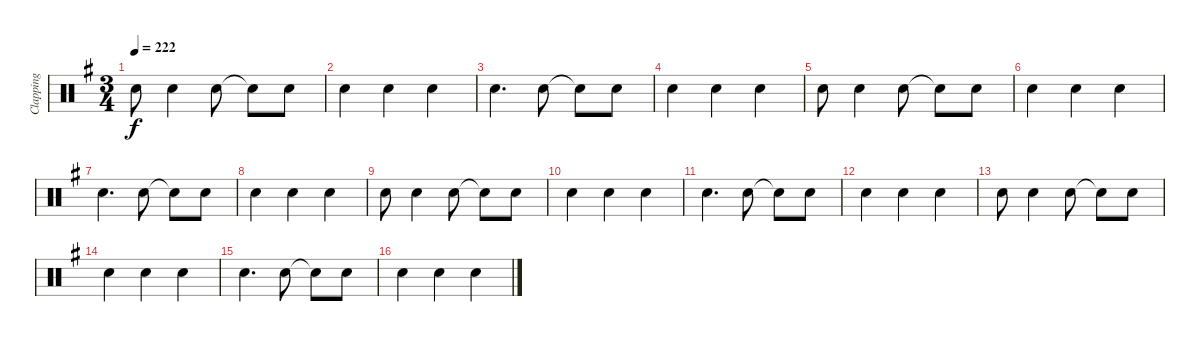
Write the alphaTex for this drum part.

\track ("Clapping" "Clapping") {instrument percussion}
\staff {score}
\articulation defaults
\ts (3 4)
\tempo 222
\clef neutral
\ks g "Hand Clap (hit)".8{dy f} "Hand Clap (hit)".4 "Hand Clap (hit)".8 "Snare (hit)"{t}.8 "Hand Clap (hit)".8
|
"Hand Clap (hit)".4 "Hand Clap (hit)".4 "Hand Clap (hit)".4 |
"Hand Clap (hit)".4{d} "Hand Clap (hit)".8 "Snare (hit)"{t}.8 "Hand Clap (hit)".8 |
"Hand Clap (hit)".4 "Hand Clap (hit)".4 "Hand Clap (hit)".4 |
"Hand Clap (hit)".8 "Hand Clap (hit)".4 "Hand Clap (hit)".8 "Snare (hit)"{t}.8 "Hand Clap (hit)".8 |
"Hand Clap (hit)".4 "Hand Clap (hit)".4 "Hand Clap (hit)".4 |
"Hand Clap (hit)".4{d} "Hand Clap (hit)".8 "Snare (hit)"{t}.8 "Hand Clap (hit)".8 |
"Hand Clap (hit)".4 "Hand Clap (hit)".4 "Hand Clap (hit)".4 |
"Hand Clap (hit)".8 "Hand Clap (hit)".4 "Hand Clap (hit)".8 "Snare (hit)"{t}.8 "Hand Clap (hit)".8 |
"Hand Clap (hit)".4 "Hand Clap (hit)".4 "Hand Clap (hit)".4 |
"Hand Clap (hit)".4{d} "Hand Clap (hit)".8 "Snare (hit)"{t}.8 "Hand Clap (hit)".8 |
"Hand Clap (hit)".4 "Hand Clap (hit)".4 "Hand Clap (hit)".4 |
"Hand Clap (hit)".8 "Hand Clap (hit)".4 "Hand Clap (hit)".8 "Snare (hit)"{t}.8 "Hand Clap (hit)".8 |
"Hand Clap (hit)".4 "Hand Clap (hit)".4 "Hand Clap (hit)".4 |
"Hand Clap (hit)".4{d} "Hand Clap (hit)".8 "Snare (hit)"{t}.8 "Hand Clap (hit)".8 |
"Hand Clap (hit)".4 "Hand Clap (hit)".4 "Hand Clap (hit)".4
